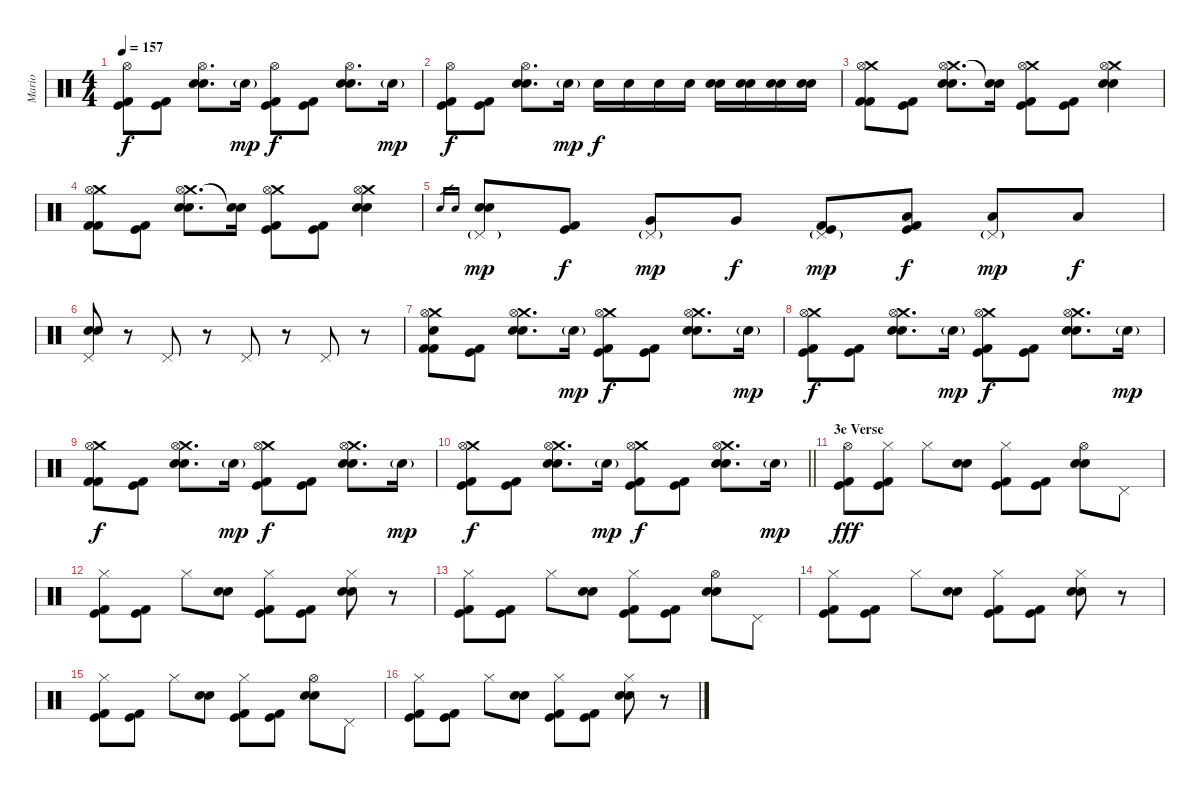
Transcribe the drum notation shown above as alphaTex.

\track ("Mario" "Mario") {instrument percussion}
\staff {score}
\articulation defaults
\ts (4 4)
\tempo 157
\clef neutral
\ks c
("Hi-Hat (open)" "Kick (hit)" "Kick (hit) 2").8{dy f} ("Kick (hit)" "Kick (hit) 2").8 ("Hi-Hat (open)" "Electric Snare (hit)" "Snare (hit) 2").8{d} "Snare (hit) 2"{g}.16{dy mp} ("Hi-Hat (open)" "Kick (hit)" "Kick (hit) 2").8{dy f} ("Kick (hit)" "Kick (hit) 2").8 ("Hi-Hat (open)" "Electric Snare (hit)" "Snare (hit) 2").8{d} "Snare (hit) 2"{g}.16{dy mp} |
("Hi-Hat (open)" "Kick (hit)" "Kick (hit) 2").8{dy f} ("Kick (hit)" "Kick (hit) 2").8 ("Hi-Hat (open)" "Electric Snare (hit)" "Snare (hit) 2").8{d} "Snare (hit) 2"{g}.16{dy mp} "Snare (hit) 2".16{dy f} "Snare (hit) 2".16 "Snare (hit) 2".16 "Snare (hit) 2".16 ("Electric Snare (hit)" "Snare (hit) 2").16 ("Electric Snare (hit)" "Snare (hit) 2").16 ("Electric Snare (hit)" "Snare (hit) 2").16 ("Electric Snare (hit)" "Snare (hit) 2").16 |
("Crash medium (hit)" "Hi-Hat (open)" "Kick (hit) 2" "Kick (hit) 2").8 ("Kick (hit)" "Kick (hit) 2").8 ("Crash medium (hit)" "Hi-Hat (open)" "Electric Snare (hit)" "Snare (hit) 2").8{d} ("Snare (hit)"{t} "Snare (hit)"{t}).16 ("Crash medium (hit)" "Hi-Hat (open)" "Kick (hit)" "Kick (hit) 2").8 ("Kick (hit)" "Kick (hit) 2").8 ("Crash medium (hit)" "Hi-Hat (open)" "Electric Snare (hit)" "Snare (hit) 2").4 |
("Crash medium (hit)" "Hi-Hat (open)" "Kick (hit) 2" "Kick (hit) 2").8 ("Kick (hit)" "Kick (hit) 2").8 ("Crash medium (hit)" "Hi-Hat (open)" "Electric Snare (hit)" "Snare (hit) 2").8{d} ("Snare (hit)"{t} "Snare (hit)"{t}).16 ("Crash medium (hit)" "Hi-Hat (open)" "Kick (hit)" "Kick (hit) 2").8 ("Kick (hit)" "Kick (hit) 2").8 ("Crash medium (hit)" "Hi-Hat (open)" "Electric Snare (hit)" "Snare (hit) 2").4 |
"Electric Snare (hit)".16{gr} "Snare (hit) 2".16{gr} ("Pedal Hi-Hat (hit)"{g} "Electric Snare (hit)" "Snare (hit) 2").8{dy mp} ("Kick (hit)" "Kick (hit) 2").8{dy f} ("Pedal Hi-Hat (hit)"{g} "Very Low Tom (hit)").8{dy mp} "Very Low Tom (hit)".8{dy f} ("Pedal Hi-Hat (hit)"{g} "Kick (hit)" "Kick (hit) 2").8{dy mp} ("Low Floor Tom (hit)" "Kick (hit)" "Kick (hit) 2").8{dy f} ("Pedal Hi-Hat (hit)"{g} "Low Floor Tom (hit)").8{dy mp} "Low Floor Tom (hit)".8{dy f} |
("Pedal Hi-Hat (hit)" "Electric Snare (hit)" "Snare (hit) 2").8 r.8 "Pedal Hi-Hat (hit)".8 r.8 "Pedal Hi-Hat (hit)".8 r.8 "Pedal Hi-Hat (hit)".8 r.8 |
("Crash medium (hit)" "Hi-Hat (open)" "Snare (hit) 2" "Kick (hit) 2" "Kick (hit) 2").8 ("Kick (hit)" "Kick (hit) 2").8 ("Crash medium (hit)" "Hi-Hat (open)" "Electric Snare (hit)" "Snare (hit) 2").8{d} "Snare (hit) 2"{g}.16{dy mp} ("Crash medium (hit)" "Hi-Hat (open)" "Kick (hit)" "Kick (hit) 2").8{dy f} ("Kick (hit)" "Kick (hit) 2").8 ("Crash medium (hit)" "Hi-Hat (open)" "Electric Snare (hit)" "Snare (hit) 2").8{d} "Snare (hit) 2"{g}.16{dy mp} |
("Crash medium (hit)" "Hi-Hat (open)" "Kick (hit)" "Kick (hit) 2").8{dy f} ("Kick (hit)" "Kick (hit) 2").8 ("Crash medium (hit)" "Hi-Hat (open)" "Electric Snare (hit)" "Snare (hit) 2").8{d} "Snare (hit) 2"{g}.16{dy mp} ("Crash medium (hit)" "Hi-Hat (open)" "Kick (hit)" "Kick (hit) 2").8{dy f} ("Kick (hit)" "Kick (hit) 2").8 ("Crash medium (hit)" "Hi-Hat (open)" "Electric Snare (hit)" "Snare (hit) 2").8{d} "Snare (hit) 2"{g}.16{dy mp} |
("Crash medium (hit)" "Hi-Hat (open)" "Kick (hit) 2" "Kick (hit) 2").8{dy f} ("Kick (hit)" "Kick (hit) 2").8 ("Crash medium (hit)" "Hi-Hat (open)" "Electric Snare (hit)" "Snare (hit) 2").8{d} "Snare (hit) 2"{g}.16{dy mp} ("Crash medium (hit)" "Hi-Hat (open)" "Kick (hit)" "Kick (hit) 2").8{dy f} ("Kick (hit)" "Kick (hit) 2").8 ("Crash medium (hit)" "Hi-Hat (open)" "Electric Snare (hit)" "Snare (hit) 2").8{d} "Snare (hit) 2"{g}.16{dy mp} |
\barLineRight lightlight
("Crash medium (hit)" "Hi-Hat (open)" "Kick (hit)" "Kick (hit) 2").8{dy f} ("Kick (hit)" "Kick (hit) 2").8 ("Crash medium (hit)" "Hi-Hat (open)" "Electric Snare (hit)" "Snare (hit) 2").8{d} "Snare (hit) 2"{g}.16{dy mp} ("Crash medium (hit)" "Hi-Hat (open)" "Kick (hit)" "Kick (hit) 2").8{dy f} ("Kick (hit)" "Kick (hit) 2").8 ("Crash medium (hit)" "Hi-Hat (open)" "Electric Snare (hit)" "Snare (hit) 2").8{d} "Snare (hit) 2"{g}.16{dy mp} |
\section ("" "3e Verse")
("Hi-Hat (open)" "Kick (hit)" "Kick (hit) 2").8{dy fff} ("Hi-Hat (closed)" "Kick (hit)" "Kick (hit) 2").8 "Hi-Hat (closed)".8 ("Electric Snare (hit)" "Snare (hit) 2").8 ("Hi-Hat (closed)" "Kick (hit)" "Kick (hit) 2").8 ("Kick (hit)" "Kick (hit) 2").8 ("Hi-Hat (open)" "Electric Snare (hit)" "Snare (hit) 2").8 "Pedal Hi-Hat (hit)".8 |
("Hi-Hat (closed)" "Kick (hit)" "Kick (hit) 2").8 ("Kick (hit)" "Kick (hit) 2").8 "Hi-Hat (closed)".8 ("Electric Snare (hit)" "Snare (hit) 2").8 ("Hi-Hat (closed)" "Kick (hit)" "Kick (hit) 2").8 ("Kick (hit)" "Kick (hit) 2").8 ("Hi-Hat (closed)" "Electric Snare (hit)" "Snare (hit) 2").8 r.8 |
("Hi-Hat (closed)" "Kick (hit)" "Kick (hit) 2").8 ("Kick (hit)" "Kick (hit) 2").8 "Hi-Hat (closed)".8 ("Electric Snare (hit)" "Snare (hit) 2").8 ("Hi-Hat (closed)" "Kick (hit)" "Kick (hit) 2").8 ("Kick (hit)" "Kick (hit) 2").8 ("Hi-Hat (open)" "Electric Snare (hit)" "Snare (hit) 2").8 "Pedal Hi-Hat (hit)".8 |
("Hi-Hat (closed)" "Kick (hit)" "Kick (hit) 2").8 ("Kick (hit)" "Kick (hit) 2").8 "Hi-Hat (closed)".8 ("Electric Snare (hit)" "Snare (hit) 2").8 ("Hi-Hat (closed)" "Kick (hit)" "Kick (hit) 2").8 ("Kick (hit)" "Kick (hit) 2").8 ("Hi-Hat (closed)" "Electric Snare (hit)" "Snare (hit) 2").8 r.8 |
("Hi-Hat (closed)" "Kick (hit)" "Kick (hit) 2").8 ("Kick (hit)" "Kick (hit) 2").8 "Hi-Hat (closed)".8 ("Electric Snare (hit)" "Snare (hit) 2").8 ("Hi-Hat (closed)" "Kick (hit)" "Kick (hit) 2").8 ("Kick (hit)" "Kick (hit) 2").8 ("Hi-Hat (open)" "Electric Snare (hit)" "Snare (hit) 2").8 "Pedal Hi-Hat (hit)".8 |
("Hi-Hat (closed)" "Kick (hit)" "Kick (hit) 2").8 ("Kick (hit)" "Kick (hit) 2").8 "Hi-Hat (closed)".8 ("Electric Snare (hit)" "Snare (hit) 2").8 ("Hi-Hat (closed)" "Kick (hit)" "Kick (hit) 2").8 ("Kick (hit)" "Kick (hit) 2").8 ("Hi-Hat (closed)" "Electric Snare (hit)" "Snare (hit) 2").8 r.8
